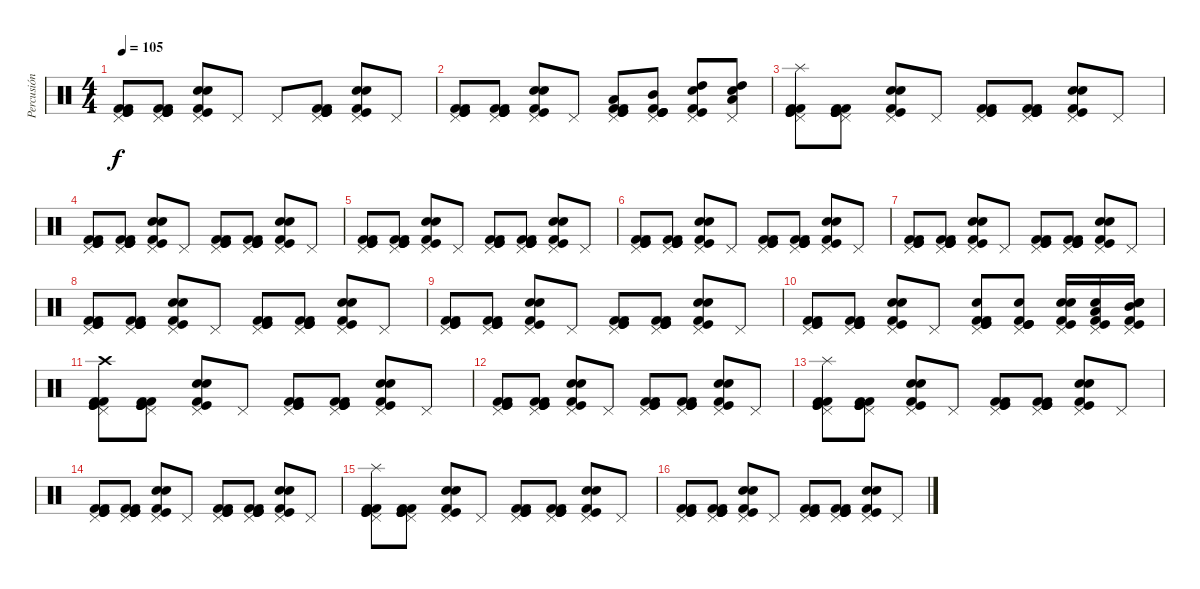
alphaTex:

\track ("Percusión" "Percusión") {instrument percussion}
\staff {score}
\articulation defaults
\ts (4 4)
\tempo 105
\clef neutral
\ks c
("Kick (hit) 2" "Kick (hit)" "Pedal Hi-Hat (hit)" "Kick (hit) 2" "Kick (hit)").8{dy f} ("Kick (hit) 2" "Kick (hit)" "Pedal Hi-Hat (hit)" "Kick (hit) 2" "Kick (hit)" "Kick (hit)").8 ("Snare (hit) 2" "Pedal Hi-Hat (hit)" "Electric Snare (hit)" "Kick (hit)" "Kick (hit) 2").8 "Pedal Hi-Hat (hit)".8 "Pedal Hi-Hat (hit)".8 ("Kick (hit) 2" "Kick (hit)" "Pedal Hi-Hat (hit)" "Kick (hit) 2" "Kick (hit)" "Kick (hit)").8 ("Snare (hit) 2" "Pedal Hi-Hat (hit)" "Electric Snare (hit)" "Kick (hit)" "Kick (hit) 2").8 "Pedal Hi-Hat (hit)".8 |
("Kick (hit) 2" "Kick (hit)" "Pedal Hi-Hat (hit)" "Kick (hit) 2" "Kick (hit)").8 ("Kick (hit) 2" "Kick (hit)" "Pedal Hi-Hat (hit)" "Kick (hit) 2" "Kick (hit)" "Kick (hit)").8 ("Snare (hit) 2" "Pedal Hi-Hat (hit)" "Electric Snare (hit)" "Kick (hit)" "Kick (hit) 2").8 "Pedal Hi-Hat (hit)".8 ("Kick (hit) 2" "Kick (hit)" "Pedal Hi-Hat (hit)" "Low Tom (hit)" "Kick (hit) 2" "Kick (hit)").8 ("Kick (hit) 2" "Kick (hit)" "Pedal Hi-Hat (hit)" "Mid Tom (hit)" "Kick (hit)" "Kick (hit)").8 ("Snare (hit) 2" "Pedal Hi-Hat (hit)" "High Tom (hit)" "Kick (hit)" "Kick (hit) 2").8 ("Low Tom (hit)" "High Tom (hit)" "Snare (hit) 2" "Pedal Hi-Hat (hit)").8 |
("Kick (hit) 2" "Kick (hit)" "Pedal Hi-Hat (hit)" "Splash (hit)" "Kick (hit) 2" "Kick (hit)").8 ("Kick (hit) 2" "Kick (hit)" "Pedal Hi-Hat (hit)" "Kick (hit) 2" "Kick (hit)" "Kick (hit)").8 ("Snare (hit) 2" "Pedal Hi-Hat (hit)" "Electric Snare (hit)" "Kick (hit)" "Kick (hit) 2").8 "Pedal Hi-Hat (hit)".8 ("Kick (hit) 2" "Kick (hit)" "Pedal Hi-Hat (hit)" "Kick (hit) 2" "Kick (hit)").8 ("Kick (hit) 2" "Kick (hit)" "Pedal Hi-Hat (hit)" "Kick (hit) 2" "Kick (hit)" "Kick (hit)").8 ("Snare (hit) 2" "Pedal Hi-Hat (hit)" "Electric Snare (hit)" "Kick (hit)" "Kick (hit) 2").8 "Pedal Hi-Hat (hit)".8 |
("Kick (hit) 2" "Kick (hit)" "Pedal Hi-Hat (hit)" "Kick (hit) 2" "Kick (hit)").8 ("Kick (hit) 2" "Kick (hit)" "Pedal Hi-Hat (hit)" "Kick (hit) 2" "Kick (hit)" "Kick (hit)").8 ("Snare (hit) 2" "Pedal Hi-Hat (hit)" "Electric Snare (hit)" "Kick (hit)" "Kick (hit) 2").8 "Pedal Hi-Hat (hit)".8 ("Kick (hit) 2" "Kick (hit)" "Pedal Hi-Hat (hit)" "Kick (hit) 2" "Kick (hit)").8 ("Kick (hit) 2" "Kick (hit)" "Pedal Hi-Hat (hit)" "Kick (hit) 2" "Kick (hit)" "Kick (hit)").8 ("Snare (hit) 2" "Pedal Hi-Hat (hit)" "Electric Snare (hit)" "Kick (hit)" "Kick (hit) 2").8 "Pedal Hi-Hat (hit)".8 |
("Kick (hit) 2" "Kick (hit)" "Pedal Hi-Hat (hit)" "Kick (hit) 2" "Kick (hit)").8 ("Kick (hit) 2" "Kick (hit)" "Pedal Hi-Hat (hit)" "Kick (hit) 2" "Kick (hit)" "Kick (hit)").8 ("Snare (hit) 2" "Pedal Hi-Hat (hit)" "Electric Snare (hit)" "Kick (hit)" "Kick (hit) 2").8 "Pedal Hi-Hat (hit)".8 ("Kick (hit) 2" "Kick (hit)" "Pedal Hi-Hat (hit)" "Kick (hit) 2" "Kick (hit)").8 ("Kick (hit) 2" "Kick (hit)" "Pedal Hi-Hat (hit)" "Kick (hit) 2" "Kick (hit)" "Kick (hit)").8 ("Snare (hit) 2" "Pedal Hi-Hat (hit)" "Electric Snare (hit)" "Kick (hit)" "Kick (hit) 2").8 "Pedal Hi-Hat (hit)".8 |
("Kick (hit) 2" "Kick (hit)" "Pedal Hi-Hat (hit)" "Kick (hit) 2" "Kick (hit)").8 ("Kick (hit) 2" "Kick (hit)" "Pedal Hi-Hat (hit)" "Kick (hit) 2" "Kick (hit)" "Kick (hit)").8 ("Snare (hit) 2" "Pedal Hi-Hat (hit)" "Electric Snare (hit)" "Kick (hit)" "Kick (hit) 2").8 "Pedal Hi-Hat (hit)".8 ("Kick (hit) 2" "Kick (hit)" "Pedal Hi-Hat (hit)" "Kick (hit) 2" "Kick (hit)").8 ("Kick (hit) 2" "Kick (hit)" "Pedal Hi-Hat (hit)" "Kick (hit) 2" "Kick (hit)" "Kick (hit)").8 ("Snare (hit) 2" "Pedal Hi-Hat (hit)" "Electric Snare (hit)" "Kick (hit)" "Kick (hit) 2").8 "Pedal Hi-Hat (hit)".8 |
("Kick (hit) 2" "Kick (hit)" "Pedal Hi-Hat (hit)" "Kick (hit) 2" "Kick (hit)").8 ("Kick (hit) 2" "Kick (hit)" "Pedal Hi-Hat (hit)" "Kick (hit) 2" "Kick (hit)" "Kick (hit)").8 ("Snare (hit) 2" "Pedal Hi-Hat (hit)" "Electric Snare (hit)" "Kick (hit)" "Kick (hit) 2").8 "Pedal Hi-Hat (hit)".8 ("Kick (hit) 2" "Kick (hit)" "Pedal Hi-Hat (hit)" "Kick (hit) 2" "Kick (hit)").8 ("Kick (hit) 2" "Kick (hit)" "Pedal Hi-Hat (hit)" "Kick (hit) 2" "Kick (hit)" "Kick (hit)").8 ("Snare (hit) 2" "Pedal Hi-Hat (hit)" "Electric Snare (hit)" "Kick (hit)" "Kick (hit) 2").8 "Pedal Hi-Hat (hit)".8 |
("Kick (hit) 2" "Kick (hit)" "Pedal Hi-Hat (hit)" "Kick (hit) 2" "Kick (hit)").8 ("Kick (hit) 2" "Kick (hit)" "Pedal Hi-Hat (hit)" "Kick (hit) 2" "Kick (hit)" "Kick (hit)").8 ("Snare (hit) 2" "Pedal Hi-Hat (hit)" "Electric Snare (hit)" "Kick (hit)" "Kick (hit) 2").8 "Pedal Hi-Hat (hit)".8 ("Kick (hit) 2" "Kick (hit)" "Pedal Hi-Hat (hit)" "Kick (hit) 2" "Kick (hit)").8 ("Kick (hit) 2" "Kick (hit)" "Pedal Hi-Hat (hit)" "Kick (hit) 2" "Kick (hit)" "Kick (hit)").8 ("Snare (hit) 2" "Pedal Hi-Hat (hit)" "Electric Snare (hit)" "Kick (hit)" "Kick (hit) 2").8 "Pedal Hi-Hat (hit)".8 |
("Kick (hit) 2" "Kick (hit)" "Pedal Hi-Hat (hit)" "Kick (hit) 2" "Kick (hit)").8 ("Kick (hit) 2" "Kick (hit)" "Pedal Hi-Hat (hit)" "Kick (hit) 2" "Kick (hit)" "Kick (hit)").8 ("Snare (hit) 2" "Pedal Hi-Hat (hit)" "Electric Snare (hit)" "Kick (hit)" "Kick (hit) 2").8 "Pedal Hi-Hat (hit)".8 ("Kick (hit) 2" "Kick (hit)" "Pedal Hi-Hat (hit)" "Kick (hit) 2" "Kick (hit)").8 ("Kick (hit) 2" "Kick (hit)" "Pedal Hi-Hat (hit)" "Kick (hit) 2" "Kick (hit)" "Kick (hit)").8 ("Snare (hit) 2" "Pedal Hi-Hat (hit)" "Electric Snare (hit)" "Kick (hit)" "Kick (hit) 2").8 "Pedal Hi-Hat (hit)".8 |
("Kick (hit) 2" "Kick (hit)" "Pedal Hi-Hat (hit)" "Kick (hit) 2" "Kick (hit)").8 ("Kick (hit) 2" "Kick (hit)" "Pedal Hi-Hat (hit)" "Kick (hit) 2" "Kick (hit)" "Kick (hit)").8 ("Snare (hit) 2" "Pedal Hi-Hat (hit)" "Electric Snare (hit)" "Kick (hit)" "Kick (hit) 2").8 "Pedal Hi-Hat (hit)".8 ("Kick (hit) 2" "Kick (hit)" "Pedal Hi-Hat (hit)" "Snare (hit) 2" "Kick (hit) 2" "Kick (hit)").8 ("Kick (hit) 2" "Kick (hit)" "Pedal Hi-Hat (hit)" "Snare (hit) 2" "Kick (hit)" "Kick (hit)").8 ("Snare (hit) 2" "Pedal Hi-Hat (hit)" "Electric Snare (hit)" "Kick (hit)" "Kick (hit) 2").16 ("Low Tom (hit)" "Pedal Hi-Hat (hit)" "Electric Snare (hit)" "Kick (hit)" "Kick (hit) 2").16 ("Snare (hit) 2" "Mid Tom (hit)" "Pedal Hi-Hat (hit)" "Electric Snare (hit)" "Kick (hit)" "Kick (hit) 2").16 |
("Kick (hit) 2" "Kick (hit)" "Pedal Hi-Hat (hit)" "Crash high (hit)" "Kick (hit) 2" "Kick (hit)").8 ("Kick (hit) 2" "Kick (hit)" "Pedal Hi-Hat (hit)" "Kick (hit) 2" "Kick (hit)" "Kick (hit)").8 ("Snare (hit) 2" "Pedal Hi-Hat (hit)" "Electric Snare (hit)" "Kick (hit)" "Kick (hit) 2").8 "Pedal Hi-Hat (hit)".8 ("Kick (hit) 2" "Kick (hit)" "Pedal Hi-Hat (hit)" "Kick (hit) 2" "Kick (hit)").8 ("Kick (hit) 2" "Kick (hit)" "Pedal Hi-Hat (hit)" "Kick (hit) 2" "Kick (hit)" "Kick (hit)").8 ("Snare (hit) 2" "Pedal Hi-Hat (hit)" "Electric Snare (hit)" "Kick (hit)" "Kick (hit) 2").8 "Pedal Hi-Hat (hit)".8 |
("Kick (hit) 2" "Kick (hit)" "Pedal Hi-Hat (hit)" "Kick (hit) 2" "Kick (hit)").8 ("Kick (hit) 2" "Kick (hit)" "Pedal Hi-Hat (hit)" "Kick (hit) 2" "Kick (hit)" "Kick (hit)").8 ("Snare (hit) 2" "Pedal Hi-Hat (hit)" "Electric Snare (hit)" "Kick (hit)" "Kick (hit) 2").8 "Pedal Hi-Hat (hit)".8 ("Kick (hit) 2" "Kick (hit)" "Pedal Hi-Hat (hit)" "Kick (hit) 2" "Kick (hit)").8 ("Kick (hit) 2" "Kick (hit)" "Pedal Hi-Hat (hit)" "Kick (hit) 2" "Kick (hit)" "Kick (hit)").8 ("Snare (hit) 2" "Pedal Hi-Hat (hit)" "Electric Snare (hit)" "Kick (hit)" "Kick (hit) 2").8 "Pedal Hi-Hat (hit)".8 |
("Kick (hit) 2" "Kick (hit)" "Pedal Hi-Hat (hit)" "Splash (hit)" "Kick (hit) 2" "Kick (hit)").8 ("Kick (hit) 2" "Kick (hit)" "Pedal Hi-Hat (hit)" "Kick (hit) 2" "Kick (hit)" "Kick (hit)").8 ("Snare (hit) 2" "Pedal Hi-Hat (hit)" "Electric Snare (hit)" "Kick (hit)" "Kick (hit) 2").8 "Pedal Hi-Hat (hit)".8 ("Kick (hit) 2" "Kick (hit)" "Pedal Hi-Hat (hit)" "Kick (hit) 2" "Kick (hit)").8 ("Kick (hit) 2" "Kick (hit)" "Pedal Hi-Hat (hit)" "Kick (hit) 2" "Kick (hit)" "Kick (hit)").8 ("Snare (hit) 2" "Pedal Hi-Hat (hit)" "Electric Snare (hit)" "Kick (hit)" "Kick (hit) 2").8 "Pedal Hi-Hat (hit)".8 |
("Kick (hit) 2" "Kick (hit)" "Pedal Hi-Hat (hit)" "Kick (hit) 2" "Kick (hit)").8 ("Kick (hit) 2" "Kick (hit)" "Pedal Hi-Hat (hit)" "Kick (hit) 2" "Kick (hit)" "Kick (hit)").8 ("Snare (hit) 2" "Pedal Hi-Hat (hit)" "Electric Snare (hit)" "Kick (hit)" "Kick (hit) 2").8 "Pedal Hi-Hat (hit)".8 ("Kick (hit) 2" "Kick (hit)" "Pedal Hi-Hat (hit)" "Kick (hit) 2" "Kick (hit)").8 ("Kick (hit) 2" "Kick (hit)" "Pedal Hi-Hat (hit)" "Kick (hit) 2" "Kick (hit)" "Kick (hit)").8 ("Snare (hit) 2" "Pedal Hi-Hat (hit)" "Electric Snare (hit)" "Kick (hit)" "Kick (hit) 2").8 "Pedal Hi-Hat (hit)".8 |
("Kick (hit) 2" "Kick (hit)" "Pedal Hi-Hat (hit)" "Splash (hit)" "Kick (hit) 2" "Kick (hit)").8 ("Kick (hit) 2" "Kick (hit)" "Pedal Hi-Hat (hit)" "Kick (hit) 2" "Kick (hit)" "Kick (hit)").8 ("Snare (hit) 2" "Pedal Hi-Hat (hit)" "Electric Snare (hit)" "Kick (hit)" "Kick (hit) 2").8 "Pedal Hi-Hat (hit)".8 ("Kick (hit) 2" "Kick (hit)" "Pedal Hi-Hat (hit)" "Kick (hit) 2" "Kick (hit)").8 ("Kick (hit) 2" "Kick (hit)" "Pedal Hi-Hat (hit)" "Kick (hit) 2" "Kick (hit)" "Kick (hit)").8 ("Snare (hit) 2" "Pedal Hi-Hat (hit)" "Electric Snare (hit)" "Kick (hit)" "Kick (hit) 2").8 "Pedal Hi-Hat (hit)".8 |
("Kick (hit) 2" "Kick (hit)" "Pedal Hi-Hat (hit)" "Kick (hit) 2" "Kick (hit)").8 ("Kick (hit) 2" "Kick (hit)" "Pedal Hi-Hat (hit)" "Kick (hit) 2" "Kick (hit)" "Kick (hit)").8 ("Snare (hit) 2" "Pedal Hi-Hat (hit)" "Electric Snare (hit)" "Kick (hit)" "Kick (hit) 2").8 "Pedal Hi-Hat (hit)".8 ("Kick (hit) 2" "Kick (hit)" "Pedal Hi-Hat (hit)" "Kick (hit) 2" "Kick (hit)").8 ("Kick (hit) 2" "Kick (hit)" "Pedal Hi-Hat (hit)" "Kick (hit) 2" "Kick (hit)" "Kick (hit)").8 ("Snare (hit) 2" "Pedal Hi-Hat (hit)" "Electric Snare (hit)" "Kick (hit)" "Kick (hit) 2").8 "Pedal Hi-Hat (hit)".8
